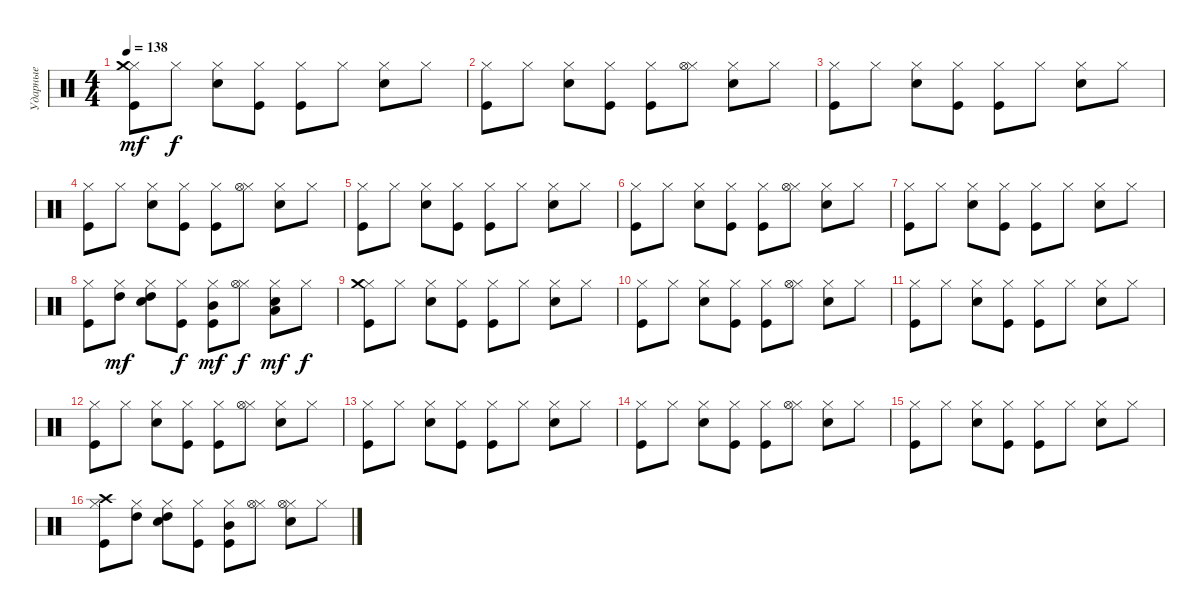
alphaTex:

\track ("Ударные" "Ударные") {instrument percussion}
\staff {score}
\articulation defaults
\ts (4 4)
\tempo 138
\clef neutral
\ks c
("Hi-Hat (closed)" "Kick (hit)" "Crash medium (hit)").8{dy mf} "Hi-Hat (closed)".8{dy f} ("Hi-Hat (closed)" "Snare (hit) 2").8 ("Hi-Hat (closed)" "Kick (hit)").8 ("Hi-Hat (closed)" "Kick (hit)").8 "Hi-Hat (closed)".8 ("Hi-Hat (closed)" "Snare (hit) 2").8 "Hi-Hat (closed)".8 |
("Hi-Hat (closed)" "Kick (hit)").8 "Hi-Hat (closed)".8 ("Hi-Hat (closed)" "Snare (hit) 2").8 ("Hi-Hat (closed)" "Kick (hit)").8 ("Hi-Hat (closed)" "Kick (hit)").8 ("Hi-Hat (closed)" "Hi-Hat (open)").8 ("Hi-Hat (closed)" "Snare (hit) 2").8 "Hi-Hat (closed)".8 |
("Hi-Hat (closed)" "Kick (hit)").8 "Hi-Hat (closed)".8 ("Hi-Hat (closed)" "Snare (hit) 2").8 ("Hi-Hat (closed)" "Kick (hit)").8 ("Hi-Hat (closed)" "Kick (hit)").8 "Hi-Hat (closed)".8 ("Hi-Hat (closed)" "Snare (hit) 2").8 "Hi-Hat (closed)".8 |
("Hi-Hat (closed)" "Kick (hit)").8 "Hi-Hat (closed)".8 ("Hi-Hat (closed)" "Snare (hit) 2").8 ("Hi-Hat (closed)" "Kick (hit)").8 ("Hi-Hat (closed)" "Kick (hit)").8 ("Hi-Hat (closed)" "Hi-Hat (open)").8 ("Hi-Hat (closed)" "Snare (hit) 2").8 "Hi-Hat (closed)".8 |
("Hi-Hat (closed)" "Kick (hit)").8 "Hi-Hat (closed)".8 ("Hi-Hat (closed)" "Snare (hit) 2").8 ("Hi-Hat (closed)" "Kick (hit)").8 ("Hi-Hat (closed)" "Kick (hit)").8 "Hi-Hat (closed)".8 ("Hi-Hat (closed)" "Snare (hit) 2").8 "Hi-Hat (closed)".8 |
("Hi-Hat (closed)" "Kick (hit)").8 "Hi-Hat (closed)".8 ("Hi-Hat (closed)" "Snare (hit) 2").8 ("Hi-Hat (closed)" "Kick (hit)").8 ("Hi-Hat (closed)" "Kick (hit)").8 ("Hi-Hat (closed)" "Hi-Hat (open)").8 ("Hi-Hat (closed)" "Snare (hit) 2").8 "Hi-Hat (closed)".8 |
("Hi-Hat (closed)" "Kick (hit)").8 "Hi-Hat (closed)".8 ("Hi-Hat (closed)" "Snare (hit) 2").8 ("Hi-Hat (closed)" "Kick (hit)").8 ("Hi-Hat (closed)" "Kick (hit)").8 "Hi-Hat (closed)".8 ("Hi-Hat (closed)" "Snare (hit) 2").8 "Hi-Hat (closed)".8 |
("Hi-Hat (closed)" "Kick (hit)").8 ("Hi-Hat (closed)" "High Tom (hit)").8{dy mf} ("Hi-Hat (closed)" "Snare (hit) 2" "High Tom (hit)").8 ("Hi-Hat (closed)" "Kick (hit)").8{dy f} ("Hi-Hat (closed)" "Kick (hit)" "Mid Tom (hit)").8{dy mf} ("Hi-Hat (closed)" "Hi-Hat (open)").8{dy f} ("Hi-Hat (closed)" "Snare (hit) 2" "Low Tom (hit)").8{dy mf} "Hi-Hat (closed)".8{dy f} |
("Hi-Hat (closed)" "Kick (hit)" "Crash medium (hit)").8 "Hi-Hat (closed)".8 ("Hi-Hat (closed)" "Snare (hit) 2").8 ("Hi-Hat (closed)" "Kick (hit)").8 ("Hi-Hat (closed)" "Kick (hit)").8 "Hi-Hat (closed)".8 ("Hi-Hat (closed)" "Snare (hit) 2").8 "Hi-Hat (closed)".8 |
("Hi-Hat (closed)" "Kick (hit)").8 "Hi-Hat (closed)".8 ("Hi-Hat (closed)" "Snare (hit) 2").8 ("Hi-Hat (closed)" "Kick (hit)").8 ("Hi-Hat (closed)" "Kick (hit)").8 ("Hi-Hat (closed)" "Hi-Hat (open)").8 ("Hi-Hat (closed)" "Snare (hit) 2").8 "Hi-Hat (closed)".8 |
("Hi-Hat (closed)" "Kick (hit)").8 "Hi-Hat (closed)".8 ("Hi-Hat (closed)" "Snare (hit) 2").8 ("Hi-Hat (closed)" "Kick (hit)").8 ("Hi-Hat (closed)" "Kick (hit)").8 "Hi-Hat (closed)".8 ("Hi-Hat (closed)" "Snare (hit) 2").8 "Hi-Hat (closed)".8 |
("Hi-Hat (closed)" "Kick (hit)").8 "Hi-Hat (closed)".8 ("Hi-Hat (closed)" "Snare (hit) 2").8 ("Hi-Hat (closed)" "Kick (hit)").8 ("Hi-Hat (closed)" "Kick (hit)").8 ("Hi-Hat (closed)" "Hi-Hat (open)").8 ("Hi-Hat (closed)" "Snare (hit) 2").8 "Hi-Hat (closed)".8 |
("Hi-Hat (closed)" "Kick (hit)").8 "Hi-Hat (closed)".8 ("Hi-Hat (closed)" "Snare (hit) 2").8 ("Hi-Hat (closed)" "Kick (hit)").8 ("Hi-Hat (closed)" "Kick (hit)").8 "Hi-Hat (closed)".8 ("Hi-Hat (closed)" "Snare (hit) 2").8 "Hi-Hat (closed)".8 |
("Hi-Hat (closed)" "Kick (hit)").8 "Hi-Hat (closed)".8 ("Hi-Hat (closed)" "Snare (hit) 2").8 ("Hi-Hat (closed)" "Kick (hit)").8 ("Hi-Hat (closed)" "Kick (hit)").8 ("Hi-Hat (closed)" "Hi-Hat (open)").8 ("Hi-Hat (closed)" "Snare (hit) 2").8 "Hi-Hat (closed)".8 |
("Hi-Hat (closed)" "Kick (hit)").8 "Hi-Hat (closed)".8 ("Hi-Hat (closed)" "Snare (hit) 2").8 ("Hi-Hat (closed)" "Kick (hit)").8 ("Hi-Hat (closed)" "Kick (hit)").8 "Hi-Hat (closed)".8 ("Hi-Hat (closed)" "Snare (hit) 2").8 "Hi-Hat (closed)".8 |
("Hi-Hat (closed)" "Kick (hit)" "Crash high (hit)").8 ("Hi-Hat (closed)" "High Tom (hit)").8 ("Hi-Hat (closed)" "Snare (hit) 2" "High Tom (hit)").8 ("Hi-Hat (closed)" "Kick (hit)").8 ("Hi-Hat (closed)" "Kick (hit)" "Mid Tom (hit)").8 ("Hi-Hat (closed)" "Hi-Hat (open)").8 ("Hi-Hat (closed)" "Snare (hit) 2" "Hi-Hat (open)").8 "Hi-Hat (closed)".8
